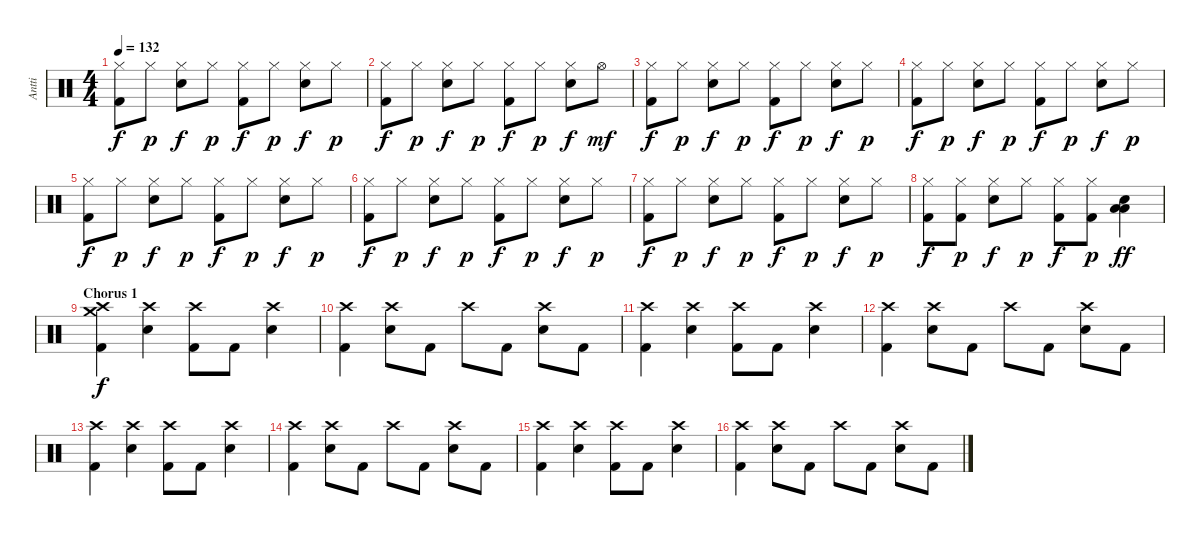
\track ("Antti" "Antti") {instrument percussion}
\staff {score}
\articulation defaults
\ts (4 4)
\tempo 132
\clef neutral
\ks c
("Hi-Hat (closed)" "Kick (hit) 2").8{dy f} "Hi-Hat (closed)".8{dy p} ("Hi-Hat (closed)" "Electric Snare (hit)").8{dy f} "Hi-Hat (closed)".8{dy p} ("Hi-Hat (closed)" "Kick (hit) 2").8{dy f} "Hi-Hat (closed)".8{dy p} ("Hi-Hat (closed)" "Electric Snare (hit)").8{dy f} "Hi-Hat (closed)".8{dy p} |
("Hi-Hat (closed)" "Kick (hit) 2").8{dy f} "Hi-Hat (closed)".8{dy p} ("Hi-Hat (closed)" "Electric Snare (hit)").8{dy f} "Hi-Hat (closed)".8{dy p} ("Hi-Hat (closed)" "Kick (hit) 2").8{dy f} "Hi-Hat (closed)".8{dy p} ("Hi-Hat (closed)" "Electric Snare (hit)").8{dy f} "Hi-Hat (open)".8{dy mf} |
("Hi-Hat (closed)" "Kick (hit) 2").8{dy f} "Hi-Hat (closed)".8{dy p} ("Hi-Hat (closed)" "Electric Snare (hit)").8{dy f} "Hi-Hat (closed)".8{dy p} ("Hi-Hat (closed)" "Kick (hit) 2").8{dy f} "Hi-Hat (closed)".8{dy p} ("Hi-Hat (closed)" "Electric Snare (hit)").8{dy f} "Hi-Hat (closed)".8{dy p} |
("Hi-Hat (closed)" "Kick (hit) 2").8{dy f} "Hi-Hat (closed)".8{dy p} ("Hi-Hat (closed)" "Electric Snare (hit)").8{dy f} "Hi-Hat (closed)".8{dy p} ("Hi-Hat (closed)" "Kick (hit) 2").8{dy f} "Hi-Hat (closed)".8{dy p} ("Hi-Hat (closed)" "Electric Snare (hit)").8{dy f} "Hi-Hat (closed)".8{dy p} |
("Hi-Hat (closed)" "Kick (hit) 2").8{dy f} "Hi-Hat (closed)".8{dy p} ("Hi-Hat (closed)" "Electric Snare (hit)").8{dy f} "Hi-Hat (closed)".8{dy p} ("Hi-Hat (closed)" "Kick (hit) 2").8{dy f} "Hi-Hat (closed)".8{dy p} ("Hi-Hat (closed)" "Electric Snare (hit)").8{dy f} "Hi-Hat (closed)".8{dy p} |
("Hi-Hat (closed)" "Kick (hit) 2").8{dy f} "Hi-Hat (closed)".8{dy p} ("Hi-Hat (closed)" "Electric Snare (hit)").8{dy f} "Hi-Hat (closed)".8{dy p} ("Hi-Hat (closed)" "Kick (hit) 2").8{dy f} "Hi-Hat (closed)".8{dy p} ("Hi-Hat (closed)" "Electric Snare (hit)").8{dy f} "Hi-Hat (closed)".8{dy p} |
("Hi-Hat (closed)" "Kick (hit) 2").8{dy f} "Hi-Hat (closed)".8{dy p} ("Hi-Hat (closed)" "Electric Snare (hit)").8{dy f} "Hi-Hat (closed)".8{dy p} ("Hi-Hat (closed)" "Kick (hit) 2").8{dy f} "Hi-Hat (closed)".8{dy p} ("Hi-Hat (closed)" "Electric Snare (hit)").8{dy f} "Hi-Hat (closed)".8{dy p} |
("Hi-Hat (closed)" "Kick (hit) 2").8{dy f} ("Hi-Hat (closed)" "Kick (hit) 2").8{dy p} ("Hi-Hat (closed)" "Electric Snare (hit)").8{dy f} "Hi-Hat (closed)".8{dy p} ("Hi-Hat (closed)" "Kick (hit) 2").8{dy f} ("Hi-Hat (closed)" "Kick (hit) 2").8{dy p} ("Low Tom (hit)" "Low Floor Tom (hit)" "Electric Snare (hit)").4{dy ff} |
\section ("" "Chorus 1")
("Crash medium (hit)" "Crash high (hit)" "Kick (hit) 2").4{dy f} ("Crash high (hit)" "Electric Snare (hit)").4 ("Crash high (hit)" "Kick (hit) 2").8 "Kick (hit) 2".8 ("Crash high (hit)" "Electric Snare (hit)").4 |
("Crash high (hit)" "Kick (hit) 2").4 ("Crash high (hit)" "Electric Snare (hit)").8 "Kick (hit) 2".8 "Crash high (hit)".8 "Kick (hit) 2".8 ("Crash high (hit)" "Electric Snare (hit)").8 "Kick (hit) 2".8 |
("Crash high (hit)" "Kick (hit) 2").4 ("Crash high (hit)" "Electric Snare (hit)").4 ("Crash high (hit)" "Kick (hit) 2").8 "Kick (hit) 2".8 ("Crash high (hit)" "Electric Snare (hit)").4 |
("Crash high (hit)" "Kick (hit) 2").4 ("Crash high (hit)" "Electric Snare (hit)").8 "Kick (hit) 2".8 "Crash high (hit)".8 "Kick (hit) 2".8 ("Crash high (hit)" "Electric Snare (hit)").8 "Kick (hit) 2".8 |
("Crash high (hit)" "Kick (hit) 2").4 ("Crash high (hit)" "Electric Snare (hit)").4 ("Crash high (hit)" "Kick (hit) 2").8 "Kick (hit) 2".8 ("Crash high (hit)" "Electric Snare (hit)").4 |
("Crash high (hit)" "Kick (hit) 2").4 ("Crash high (hit)" "Electric Snare (hit)").8 "Kick (hit) 2".8 "Crash high (hit)".8 "Kick (hit) 2".8 ("Crash high (hit)" "Electric Snare (hit)").8 "Kick (hit) 2".8 |
("Crash high (hit)" "Kick (hit) 2").4 ("Crash high (hit)" "Electric Snare (hit)").4 ("Crash high (hit)" "Kick (hit) 2").8 "Kick (hit) 2".8 ("Crash high (hit)" "Electric Snare (hit)").4 |
("Crash high (hit)" "Kick (hit) 2").4 ("Crash high (hit)" "Electric Snare (hit)").8 "Kick (hit) 2".8 "Crash high (hit)".8 "Kick (hit) 2".8 ("Crash high (hit)" "Electric Snare (hit)").8 "Kick (hit) 2".8
